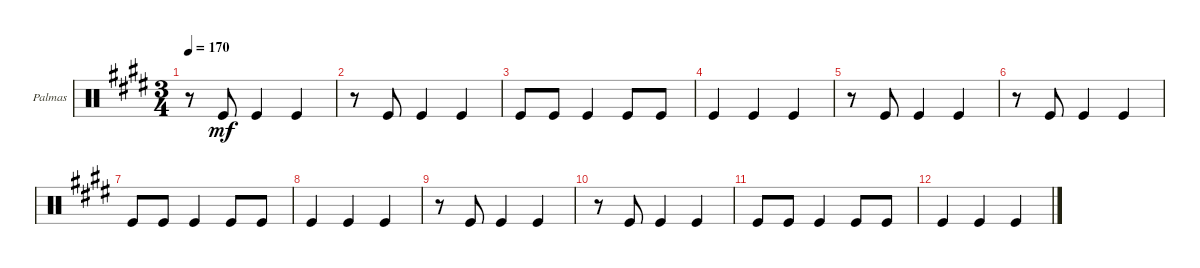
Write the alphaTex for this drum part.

\defaultSystemsLayout 4
\bracketExtendMode groupsimilarinstruments
\firstSystemTrackNameOrientation horizontal
\otherSystemsTrackNameOrientation horizontal
\track ("Palmas" "Palmas") {instrument percussion}
\staff {score}
\articulation defaults
\ts (3 4)
\tempo 170
\clef neutral
\ks e
r.8{dy mf} "Kick (hit)".8 "Kick (hit)".4 "Kick (hit)".4 |
r.8 "Kick (hit)".8 "Kick (hit)".4 "Kick (hit)".4 |
"Kick (hit)".8 "Kick (hit)".8 "Kick (hit)".4 "Kick (hit)".8 "Kick (hit)".8 |
"Kick (hit)".4 "Kick (hit)".4 "Kick (hit)".4 |
r.8 "Kick (hit)".8 "Kick (hit)".4 "Kick (hit)".4 |
r.8 "Kick (hit)".8 "Kick (hit)".4 "Kick (hit)".4 |
"Kick (hit)".8 "Kick (hit)".8 "Kick (hit)".4 "Kick (hit)".8 "Kick (hit)".8 |
"Kick (hit)".4 "Kick (hit)".4 "Kick (hit)".4 |
r.8 "Kick (hit)".8 "Kick (hit)".4 "Kick (hit)".4 |
r.8 "Kick (hit)".8 "Kick (hit)".4 "Kick (hit)".4 |
"Kick (hit)".8 "Kick (hit)".8 "Kick (hit)".4 "Kick (hit)".8 "Kick (hit)".8 |
"Kick (hit)".4 "Kick (hit)".4 "Kick (hit)".4
